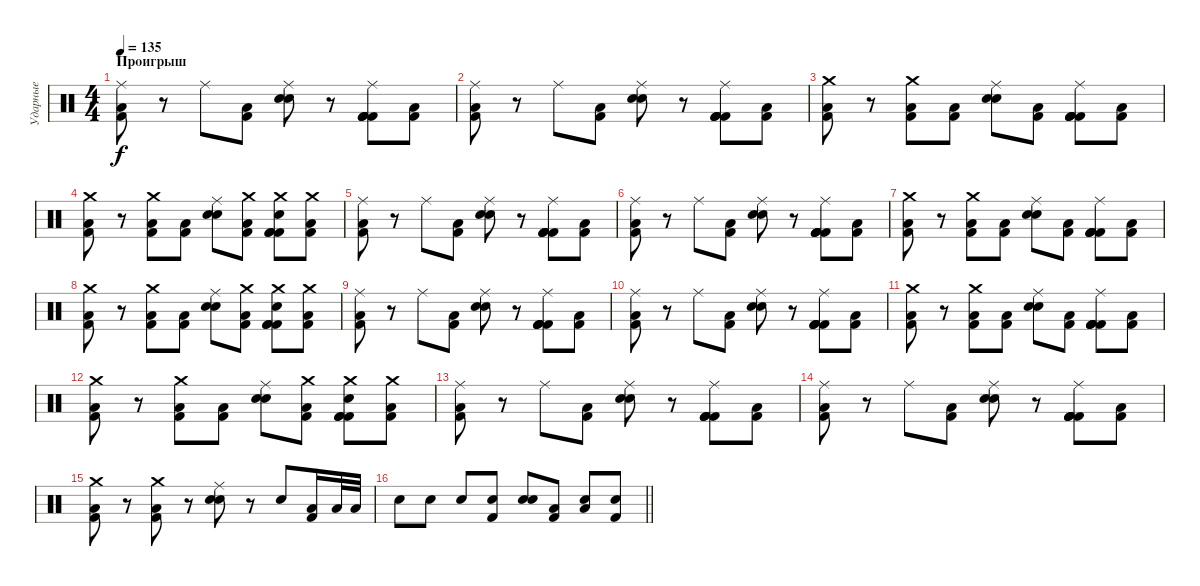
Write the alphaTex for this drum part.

\track ("Ударные" "Ударные") {instrument percussion}
\staff {score}
\articulation defaults
\ts (4 4)
\section ("" "Проигрыш")
\tempo 135
\clef neutral
\ks c
("Kick (hit) 2" "Low Floor Tom (hit)" "Ride (middle)").8{dy f} r.8 "Ride (middle)".8 ("Kick (hit) 2" "Low Floor Tom (hit)").8 ("Electric Snare (hit)" "Snare (hit) 2" "Ride (middle)").8 r.8 ("Kick (hit) 2" "Kick (hit) 2" "Kick (hit) 2" "Kick (hit) 2" "Ride (middle)").8 ("Kick (hit) 2" "Low Floor Tom (hit)").8 |
("Kick (hit) 2" "Low Floor Tom (hit)" "Ride (middle)").8 r.8 "Ride (middle)".8 ("Kick (hit) 2" "Low Floor Tom (hit)").8 ("Electric Snare (hit)" "Snare (hit) 2" "Ride (middle)").8 r.8 ("Kick (hit) 2" "Kick (hit) 2" "Kick (hit) 2" "Kick (hit) 2" "Ride (middle)").8 ("Kick (hit) 2" "Low Floor Tom (hit)").8 |
("Kick (hit) 2" "Low Floor Tom (hit)" "Crash medium (hit)").8 r.8 ("Crash medium (hit)" "Low Floor Tom (hit)" "Kick (hit) 2").8 ("Low Floor Tom (hit)" "Kick (hit) 2").8 ("Electric Snare (hit)" "Snare (hit) 2" "Ride (middle)").8 ("Low Floor Tom (hit)" "Kick (hit) 2").8 ("Kick (hit) 2" "Kick (hit) 2" "Kick (hit) 2" "Kick (hit) 2" "Ride (middle)").8 ("Kick (hit) 2" "Low Floor Tom (hit)").8 |
("Kick (hit) 2" "Low Floor Tom (hit)" "Crash medium (hit)").8 r.8 ("Crash medium (hit)" "Low Floor Tom (hit)" "Kick (hit) 2").8 ("Low Floor Tom (hit)" "Kick (hit) 2").8 ("Electric Snare (hit)" "Snare (hit) 2" "Ride (middle)").8 ("Low Floor Tom (hit)" "Kick (hit) 2" "Crash medium (hit)").8 ("Kick (hit) 2" "Electric Snare (hit)" "Kick (hit) 2" "Kick (hit) 2" "Crash medium (hit)").8 ("Kick (hit) 2" "Low Floor Tom (hit)" "Crash medium (hit)").8 |
("Kick (hit) 2" "Low Floor Tom (hit)" "Ride (middle)").8 r.8 "Ride (middle)".8 ("Kick (hit) 2" "Low Floor Tom (hit)").8 ("Electric Snare (hit)" "Snare (hit) 2" "Ride (middle)").8 r.8 ("Kick (hit) 2" "Kick (hit) 2" "Kick (hit) 2" "Kick (hit) 2" "Ride (middle)").8 ("Kick (hit) 2" "Low Floor Tom (hit)").8 |
("Kick (hit) 2" "Low Floor Tom (hit)" "Ride (middle)").8 r.8 "Ride (middle)".8 ("Kick (hit) 2" "Low Floor Tom (hit)").8 ("Electric Snare (hit)" "Snare (hit) 2" "Ride (middle)").8 r.8 ("Kick (hit) 2" "Kick (hit) 2" "Kick (hit) 2" "Kick (hit) 2" "Ride (middle)").8 ("Kick (hit) 2" "Low Floor Tom (hit)").8 |
("Kick (hit) 2" "Low Floor Tom (hit)" "Crash medium (hit)").8 r.8 ("Crash medium (hit)" "Low Floor Tom (hit)" "Kick (hit) 2").8 ("Low Floor Tom (hit)" "Kick (hit) 2").8 ("Electric Snare (hit)" "Snare (hit) 2" "Ride (middle)").8 ("Low Floor Tom (hit)" "Kick (hit) 2").8 ("Kick (hit) 2" "Kick (hit) 2" "Kick (hit) 2" "Kick (hit) 2" "Ride (middle)").8 ("Kick (hit) 2" "Low Floor Tom (hit)").8 |
("Kick (hit) 2" "Low Floor Tom (hit)" "Crash medium (hit)").8 r.8 ("Crash medium (hit)" "Low Floor Tom (hit)" "Kick (hit) 2").8 ("Low Floor Tom (hit)" "Kick (hit) 2").8 ("Electric Snare (hit)" "Snare (hit) 2" "Ride (middle)").8 ("Low Floor Tom (hit)" "Kick (hit) 2" "Crash medium (hit)").8 ("Kick (hit) 2" "Electric Snare (hit)" "Kick (hit) 2" "Kick (hit) 2" "Crash medium (hit)").8 ("Kick (hit) 2" "Low Floor Tom (hit)" "Crash medium (hit)").8 |
("Kick (hit) 2" "Low Floor Tom (hit)" "Ride (middle)").8 r.8 "Ride (middle)".8 ("Kick (hit) 2" "Low Floor Tom (hit)").8 ("Electric Snare (hit)" "Snare (hit) 2" "Ride (middle)").8 r.8 ("Kick (hit) 2" "Kick (hit) 2" "Kick (hit) 2" "Kick (hit) 2" "Ride (middle)").8 ("Kick (hit) 2" "Low Floor Tom (hit)").8 |
("Kick (hit) 2" "Low Floor Tom (hit)" "Ride (middle)").8 r.8 "Ride (middle)".8 ("Kick (hit) 2" "Low Floor Tom (hit)").8 ("Electric Snare (hit)" "Snare (hit) 2" "Ride (middle)").8 r.8 ("Kick (hit) 2" "Kick (hit) 2" "Kick (hit) 2" "Kick (hit) 2" "Ride (middle)").8 ("Kick (hit) 2" "Low Floor Tom (hit)").8 |
("Kick (hit) 2" "Low Floor Tom (hit)" "Crash medium (hit)").8 r.8 ("Crash medium (hit)" "Low Floor Tom (hit)" "Kick (hit) 2").8 ("Low Floor Tom (hit)" "Kick (hit) 2").8 ("Electric Snare (hit)" "Snare (hit) 2" "Ride (middle)").8 ("Low Floor Tom (hit)" "Kick (hit) 2").8 ("Kick (hit) 2" "Kick (hit) 2" "Kick (hit) 2" "Kick (hit) 2" "Ride (middle)").8 ("Kick (hit) 2" "Low Floor Tom (hit)").8 |
("Kick (hit) 2" "Low Floor Tom (hit)" "Crash medium (hit)").8 r.8 ("Crash medium (hit)" "Low Floor Tom (hit)" "Kick (hit) 2").8 ("Low Floor Tom (hit)" "Kick (hit) 2").8 ("Electric Snare (hit)" "Snare (hit) 2" "Ride (middle)").8 ("Low Floor Tom (hit)" "Kick (hit) 2" "Crash medium (hit)").8 ("Kick (hit) 2" "Electric Snare (hit)" "Kick (hit) 2" "Kick (hit) 2" "Crash medium (hit)").8 ("Kick (hit) 2" "Low Floor Tom (hit)" "Crash medium (hit)").8 |
("Kick (hit) 2" "Low Floor Tom (hit)" "Ride (middle)").8 r.8 "Ride (middle)".8 ("Kick (hit) 2" "Low Floor Tom (hit)").8 ("Electric Snare (hit)" "Snare (hit) 2" "Ride (middle)").8 r.8 ("Kick (hit) 2" "Kick (hit) 2" "Kick (hit) 2" "Kick (hit) 2" "Ride (middle)").8 ("Kick (hit) 2" "Low Floor Tom (hit)").8 |
("Kick (hit) 2" "Low Floor Tom (hit)" "Ride (middle)").8 r.8 "Ride (middle)".8 ("Kick (hit) 2" "Low Floor Tom (hit)").8 ("Electric Snare (hit)" "Snare (hit) 2" "Ride (middle)").8 r.8 ("Kick (hit) 2" "Kick (hit) 2" "Kick (hit) 2" "Kick (hit) 2" "Ride (middle)").8 ("Kick (hit) 2" "Low Floor Tom (hit)").8 |
("Kick (hit) 2" "Low Floor Tom (hit)" "Crash medium (hit)").8 r.8 ("Crash medium (hit)" "Low Floor Tom (hit)" "Kick (hit) 2").8 r.8 ("Electric Snare (hit)" "Snare (hit) 2" "Ride (middle)").8 r.8 "Electric Snare (hit)".8 ("Kick (hit) 2" "Low Floor Tom (hit)").16 "Low Floor Tom (hit)".32 "Low Floor Tom (hit)".32 |
\barLineRight lightlight "Electric Snare (hit)".8 "Electric Snare (hit)".8 "Electric Snare (hit)".8
("Electric Snare (hit)" "Kick (hit) 2").8 ("Electric Snare (hit)" "Snare (hit) 2").8 ("Low Floor Tom (hit)" "Kick (hit) 2").8 ("Low Floor Tom (hit)" "Snare (hit) 2").8 ("Electric Snare (hit)" "Kick (hit) 2").8
